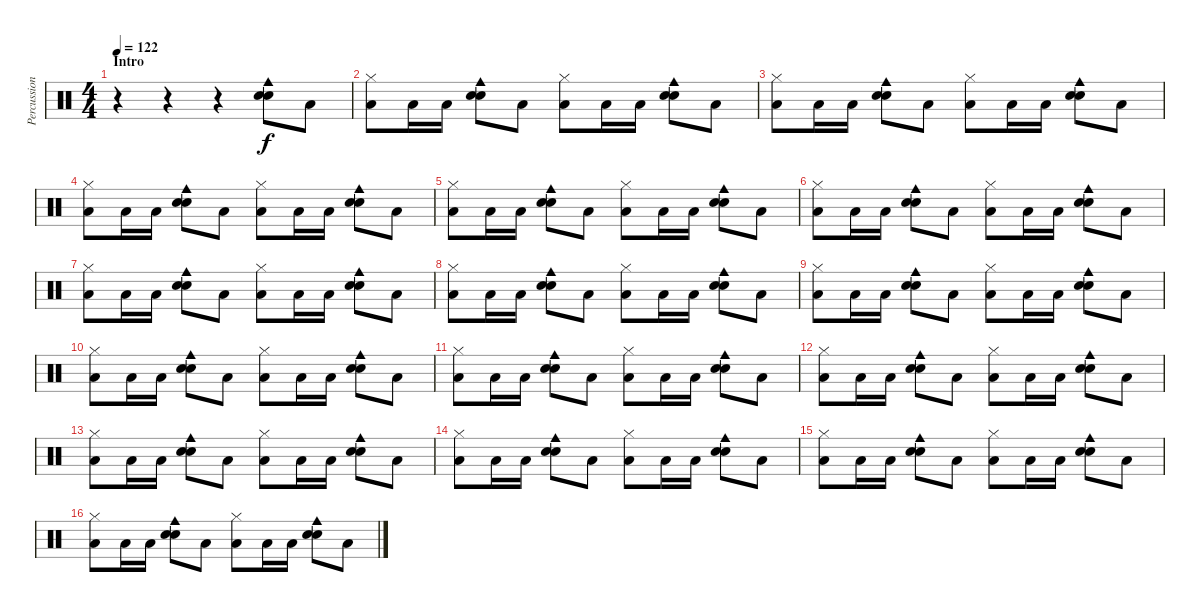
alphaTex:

\track ("Percussion" "Percussion") {instrument percussion}
\staff {score}
\articulation defaults
\ts (4 4)
\section ("" "Intro")
\tempo 122
\clef neutral
\ks c
r.4{dy f} r.4 r.4 ("Snare (hit) 2" "Electric Snare (hit)" "Cowbell medium (hit)").8 "Low Tom (hit)".8 |
("Hi-Hat (closed)" "Low Tom (hit)").8 "Low Tom (hit)".16 "Low Tom (hit)".16 ("Snare (hit) 2" "Electric Snare (hit)" "Cowbell medium (hit)").8 "Low Tom (hit)".8 ("Hi-Hat (closed)" "Low Tom (hit)").8 "Low Tom (hit)".16 "Low Tom (hit)".16 ("Snare (hit) 2" "Electric Snare (hit)" "Cowbell medium (hit)").8 "Low Tom (hit)".8 |
("Hi-Hat (closed)" "Low Tom (hit)").8 "Low Tom (hit)".16 "Low Tom (hit)".16 ("Snare (hit) 2" "Electric Snare (hit)" "Cowbell medium (hit)").8 "Low Tom (hit)".8 ("Hi-Hat (closed)" "Low Tom (hit)").8 "Low Tom (hit)".16 "Low Tom (hit)".16 ("Snare (hit) 2" "Electric Snare (hit)" "Cowbell medium (hit)").8 "Low Tom (hit)".8 |
("Hi-Hat (closed)" "Low Tom (hit)").8 "Low Tom (hit)".16 "Low Tom (hit)".16 ("Snare (hit) 2" "Electric Snare (hit)" "Cowbell medium (hit)").8 "Low Tom (hit)".8 ("Hi-Hat (closed)" "Low Tom (hit)").8 "Low Tom (hit)".16 "Low Tom (hit)".16 ("Snare (hit) 2" "Electric Snare (hit)" "Cowbell medium (hit)").8 "Low Tom (hit)".8 |
("Hi-Hat (closed)" "Low Tom (hit)").8 "Low Tom (hit)".16 "Low Tom (hit)".16 ("Snare (hit) 2" "Electric Snare (hit)" "Cowbell medium (hit)").8 "Low Tom (hit)".8 ("Hi-Hat (closed)" "Low Tom (hit)").8 "Low Tom (hit)".16 "Low Tom (hit)".16 ("Snare (hit) 2" "Electric Snare (hit)" "Cowbell medium (hit)").8 "Low Tom (hit)".8 |
("Hi-Hat (closed)" "Low Tom (hit)").8 "Low Tom (hit)".16 "Low Tom (hit)".16 ("Snare (hit) 2" "Electric Snare (hit)" "Cowbell medium (hit)").8 "Low Tom (hit)".8 ("Hi-Hat (closed)" "Low Tom (hit)").8 "Low Tom (hit)".16 "Low Tom (hit)".16 ("Snare (hit) 2" "Electric Snare (hit)" "Cowbell medium (hit)").8 "Low Tom (hit)".8 |
("Hi-Hat (closed)" "Low Tom (hit)").8 "Low Tom (hit)".16 "Low Tom (hit)".16 ("Snare (hit) 2" "Electric Snare (hit)" "Cowbell medium (hit)").8 "Low Tom (hit)".8 ("Hi-Hat (closed)" "Low Tom (hit)").8 "Low Tom (hit)".16 "Low Tom (hit)".16 ("Snare (hit) 2" "Electric Snare (hit)" "Cowbell medium (hit)").8 "Low Tom (hit)".8 |
("Hi-Hat (closed)" "Low Tom (hit)").8 "Low Tom (hit)".16 "Low Tom (hit)".16 ("Snare (hit) 2" "Electric Snare (hit)" "Cowbell medium (hit)").8 "Low Tom (hit)".8 ("Hi-Hat (closed)" "Low Tom (hit)").8 "Low Tom (hit)".16 "Low Tom (hit)".16 ("Snare (hit) 2" "Electric Snare (hit)" "Cowbell medium (hit)").8 "Low Tom (hit)".8 |
("Hi-Hat (closed)" "Low Tom (hit)").8 "Low Tom (hit)".16 "Low Tom (hit)".16 ("Snare (hit) 2" "Electric Snare (hit)" "Cowbell medium (hit)").8 "Low Tom (hit)".8 ("Hi-Hat (closed)" "Low Tom (hit)").8 "Low Tom (hit)".16 "Low Tom (hit)".16 ("Snare (hit) 2" "Electric Snare (hit)" "Cowbell medium (hit)").8 "Low Tom (hit)".8 |
("Hi-Hat (closed)" "Low Tom (hit)").8 "Low Tom (hit)".16 "Low Tom (hit)".16 ("Snare (hit) 2" "Electric Snare (hit)" "Cowbell medium (hit)").8 "Low Tom (hit)".8 ("Hi-Hat (closed)" "Low Tom (hit)").8 "Low Tom (hit)".16 "Low Tom (hit)".16 ("Snare (hit) 2" "Electric Snare (hit)" "Cowbell medium (hit)").8 "Low Tom (hit)".8 |
("Hi-Hat (closed)" "Low Tom (hit)").8 "Low Tom (hit)".16 "Low Tom (hit)".16 ("Snare (hit) 2" "Electric Snare (hit)" "Cowbell medium (hit)").8 "Low Tom (hit)".8 ("Hi-Hat (closed)" "Low Tom (hit)").8 "Low Tom (hit)".16 "Low Tom (hit)".16 ("Snare (hit) 2" "Electric Snare (hit)" "Cowbell medium (hit)").8 "Low Tom (hit)".8 |
("Hi-Hat (closed)" "Low Tom (hit)").8 "Low Tom (hit)".16 "Low Tom (hit)".16 ("Snare (hit) 2" "Electric Snare (hit)" "Cowbell medium (hit)").8 "Low Tom (hit)".8 ("Hi-Hat (closed)" "Low Tom (hit)").8 "Low Tom (hit)".16 "Low Tom (hit)".16 ("Snare (hit) 2" "Electric Snare (hit)" "Cowbell medium (hit)").8 "Low Tom (hit)".8 |
("Hi-Hat (closed)" "Low Tom (hit)").8 "Low Tom (hit)".16 "Low Tom (hit)".16 ("Snare (hit) 2" "Electric Snare (hit)" "Cowbell medium (hit)").8 "Low Tom (hit)".8 ("Hi-Hat (closed)" "Low Tom (hit)").8 "Low Tom (hit)".16 "Low Tom (hit)".16 ("Snare (hit) 2" "Electric Snare (hit)" "Cowbell medium (hit)").8 "Low Tom (hit)".8 |
("Hi-Hat (closed)" "Low Tom (hit)").8 "Low Tom (hit)".16 "Low Tom (hit)".16 ("Snare (hit) 2" "Electric Snare (hit)" "Cowbell medium (hit)").8 "Low Tom (hit)".8 ("Hi-Hat (closed)" "Low Tom (hit)").8 "Low Tom (hit)".16 "Low Tom (hit)".16 ("Snare (hit) 2" "Electric Snare (hit)" "Cowbell medium (hit)").8 "Low Tom (hit)".8 |
("Hi-Hat (closed)" "Low Tom (hit)").8 "Low Tom (hit)".16 "Low Tom (hit)".16 ("Snare (hit) 2" "Electric Snare (hit)" "Cowbell medium (hit)").8 "Low Tom (hit)".8 ("Hi-Hat (closed)" "Low Tom (hit)").8 "Low Tom (hit)".16 "Low Tom (hit)".16 ("Snare (hit) 2" "Electric Snare (hit)" "Cowbell medium (hit)").8 "Low Tom (hit)".8 |
("Hi-Hat (closed)" "Low Tom (hit)").8 "Low Tom (hit)".16 "Low Tom (hit)".16 ("Snare (hit) 2" "Electric Snare (hit)" "Cowbell medium (hit)").8 "Low Tom (hit)".8 ("Hi-Hat (closed)" "Low Tom (hit)").8 "Low Tom (hit)".16 "Low Tom (hit)".16 ("Snare (hit) 2" "Electric Snare (hit)" "Cowbell medium (hit)").8 "Low Tom (hit)".8
